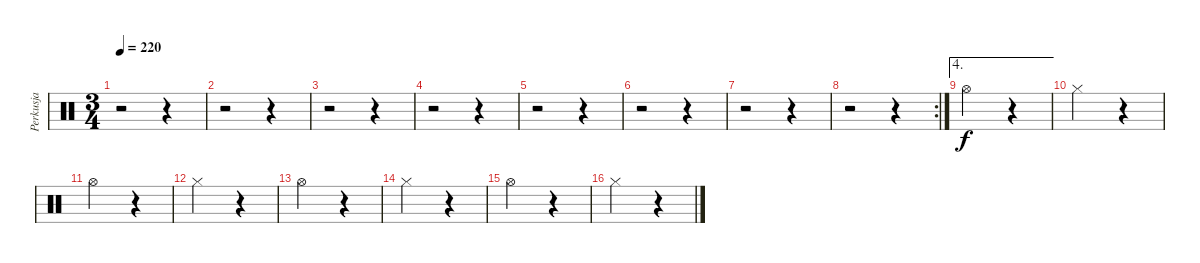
\track ("Perkusja" "Perkusja") {instrument percussion}
\staff {score}
\articulation defaults
\ts (3 4)
\tempo 220
\clef neutral
\ks c
r.2{dy f} r.4 |
r.2 r.4 |
r.2 r.4 |
r.2 r.4 |
r.2 r.4 |
r.2 r.4 |
r.2 r.4 |
\rc 2
r.2 r.4 |
\ae 4 "Hi-Hat (open)".2
r.4 |
"Hi-Hat (closed)".2 r.4 |
"Hi-Hat (open)".2 r.4 |
"Hi-Hat (closed)".2 r.4 |
"Hi-Hat (open)".2 r.4 |
"Hi-Hat (closed)".2 r.4 |
"Hi-Hat (open)".2 r.4 |
"Hi-Hat (closed)".2 r.4
